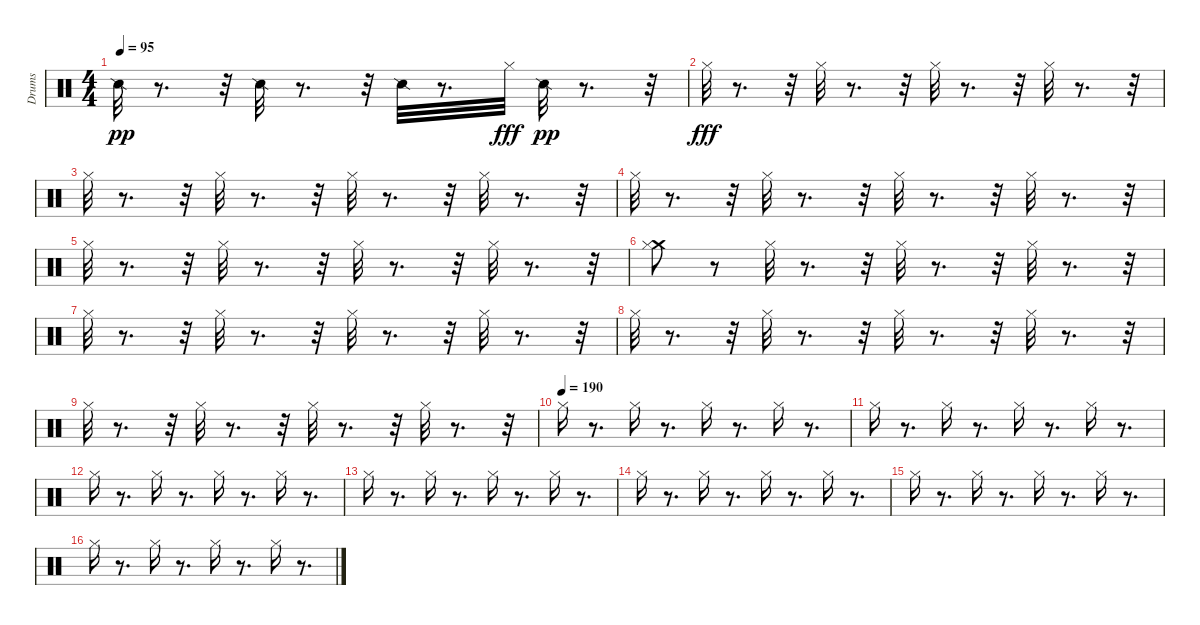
\track ("Drums" "Drums") {instrument percussion}
\staff {score}
\articulation defaults
\ts (4 4)
\tempo 95
\clef neutral
\ks c "Snare (side stick) 2".32{dy pp}
r.8{d} r.32 "Snare (side stick) 2".32 r.8{d} r.32 "Snare (side stick) 2".32 r.8{d} "Hi-Hat (closed)".32{dy fff} "Snare (side stick) 2".32{dy pp} r.8{d} r.32 |
"Hi-Hat (closed)".32{dy fff} r.8{d} r.32 "Hi-Hat (closed)".32 r.8{d} r.32 "Hi-Hat (closed)".32 r.8{d} r.32 "Hi-Hat (closed)".32 r.8{d} r.32 |
"Hi-Hat (closed)".32 r.8{d} r.32 "Hi-Hat (closed)".32 r.8{d} r.32 "Hi-Hat (closed)".32 r.8{d} r.32 "Hi-Hat (closed)".32 r.8{d} r.32 |
"Hi-Hat (closed)".32 r.8{d} r.32 "Hi-Hat (closed)".32 r.8{d} r.32 "Hi-Hat (closed)".32 r.8{d} r.32 "Hi-Hat (closed)".32 r.8{d} r.32 |
"Hi-Hat (closed)".32 r.8{d} r.32 "Hi-Hat (closed)".32 r.8{d} r.32 "Hi-Hat (closed)".32 r.8{d} r.32 "Hi-Hat (closed)".32 r.8{d} r.32 |
("Crash medium (hit)" "Hi-Hat (closed)").8 r.8 "Hi-Hat (closed)".32 r.8{d} r.32 "Hi-Hat (closed)".32 r.8{d} r.32 "Hi-Hat (closed)".32 r.8{d} r.32 |
"Hi-Hat (closed)".32 r.8{d} r.32 "Hi-Hat (closed)".32 r.8{d} r.32 "Hi-Hat (closed)".32 r.8{d} r.32 "Hi-Hat (closed)".32 r.8{d} r.32 |
"Hi-Hat (closed)".32 r.8{d} r.32 "Hi-Hat (closed)".32 r.8{d} r.32 "Hi-Hat (closed)".32 r.8{d} r.32 "Hi-Hat (closed)".32 r.8{d} r.32 |
"Hi-Hat (closed)".32 r.8{d} r.32 "Hi-Hat (closed)".32 r.8{d} r.32 "Hi-Hat (closed)".32 r.8{d} r.32 "Hi-Hat (closed)".32 r.8{d} r.32 |
\tempo (190)
"Hi-Hat (closed)".16 r.8{d} "Hi-Hat (closed)".16 r.8{d} "Hi-Hat (closed)".16 r.8{d} "Hi-Hat (closed)".16 r.8{d} |
"Hi-Hat (closed)".16 r.8{d} "Hi-Hat (closed)".16 r.8{d} "Hi-Hat (closed)".16 r.8{d} "Hi-Hat (closed)".16 r.8{d} |
"Hi-Hat (closed)".16 r.8{d} "Hi-Hat (closed)".16 r.8{d} "Hi-Hat (closed)".16 r.8{d} "Hi-Hat (closed)".16 r.8{d} |
"Hi-Hat (closed)".16 r.8{d} "Hi-Hat (closed)".16 r.8{d} "Hi-Hat (closed)".16 r.8{d} "Hi-Hat (closed)".16 r.8{d} |
"Hi-Hat (closed)".16 r.8{d} "Hi-Hat (closed)".16 r.8{d} "Hi-Hat (closed)".16 r.8{d} "Hi-Hat (closed)".16 r.8{d} |
"Hi-Hat (closed)".16 r.8{d} "Hi-Hat (closed)".16 r.8{d} "Hi-Hat (closed)".16 r.8{d} "Hi-Hat (closed)".16 r.8{d} |
"Hi-Hat (closed)".16 r.8{d} "Hi-Hat (closed)".16 r.8{d} "Hi-Hat (closed)".16 r.8{d} "Hi-Hat (closed)".16 r.8{d}
